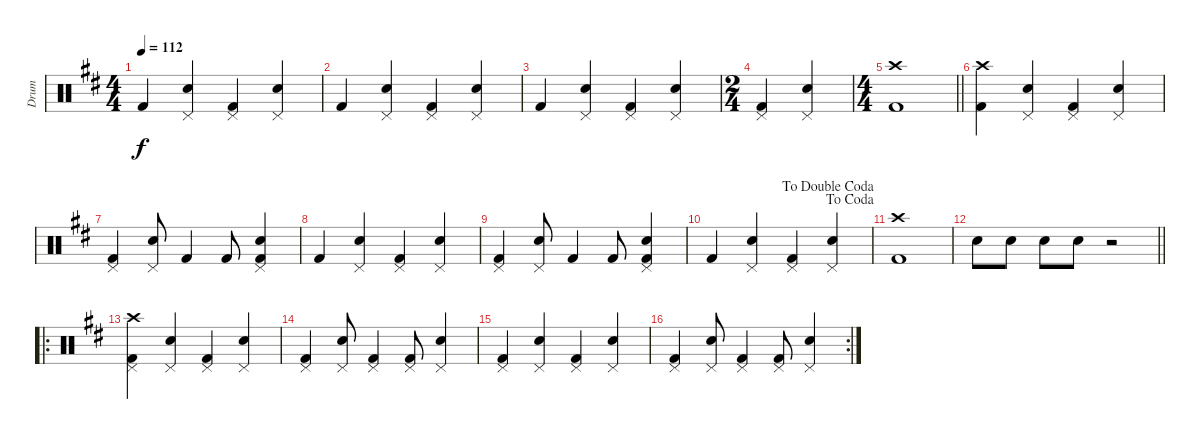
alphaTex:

\track ("Drum" "Drum") {instrument percussion}
\staff {score}
\articulation defaults
\ts (4 4)
\tempo 112
\clef neutral
\ks d "Kick (hit) 2".4{dy f}
("Pedal Hi-Hat (hit)" "Snare (hit) 2").4 ("Pedal Hi-Hat (hit)" "Kick (hit) 2").4 ("Pedal Hi-Hat (hit)" "Snare (hit) 2").4 |
"Kick (hit) 2".4 ("Pedal Hi-Hat (hit)" "Snare (hit) 2").4 ("Pedal Hi-Hat (hit)" "Kick (hit) 2").4 ("Pedal Hi-Hat (hit)" "Snare (hit) 2").4 |
"Kick (hit) 2".4 ("Pedal Hi-Hat (hit)" "Snare (hit) 2").4 ("Pedal Hi-Hat (hit)" "Kick (hit) 2").4 ("Pedal Hi-Hat (hit)" "Snare (hit) 2").4 |
\ts (2 4)
("Pedal Hi-Hat (hit)" "Kick (hit) 2").4 ("Pedal Hi-Hat (hit)" "Snare (hit) 2").4 |
\ts (4 4)
\barLineRight lightlight
("Kick (hit) 2" "Crash high (hit)").1 |
("Kick (hit) 2" "Crash high (hit)").4 ("Pedal Hi-Hat (hit)" "Snare (hit) 2").4 ("Pedal Hi-Hat (hit)" "Kick (hit) 2").4 ("Pedal Hi-Hat (hit)" "Snare (hit) 2").4 |
("Pedal Hi-Hat (hit)" "Kick (hit) 2").4 ("Pedal Hi-Hat (hit)" "Snare (hit) 2").8 "Kick (hit) 2".4 "Kick (hit) 2".8 ("Pedal Hi-Hat (hit)" "Snare (hit) 2" "Kick (hit) 2").4 |
"Kick (hit) 2".4 ("Pedal Hi-Hat (hit)" "Snare (hit) 2").4 ("Pedal Hi-Hat (hit)" "Kick (hit) 2").4 ("Pedal Hi-Hat (hit)" "Snare (hit) 2").4 |
("Pedal Hi-Hat (hit)" "Kick (hit) 2").4 ("Pedal Hi-Hat (hit)" "Snare (hit) 2").8 "Kick (hit) 2".4 "Kick (hit) 2".8 ("Pedal Hi-Hat (hit)" "Snare (hit) 2" "Kick (hit) 2").4 |
\jump dacoda
\jump dadoublecoda "Kick (hit) 2".4
("Pedal Hi-Hat (hit)" "Snare (hit) 2").4 ("Pedal Hi-Hat (hit)" "Kick (hit) 2").4 ("Pedal Hi-Hat (hit)" "Snare (hit) 2").4 |
("Crash high (hit)" "Kick (hit) 2").1 |
\barLineRight lightlight "Electric Snare (hit)".8 "Electric Snare (hit)".8 "Electric Snare (hit)".8 "Electric Snare (hit)".8
r.2 |
\ro
("Pedal Hi-Hat (hit)" "Kick (hit) 2" "Crash high (hit)").4 ("Snare (hit) 2" "Pedal Hi-Hat (hit)").4 ("Pedal Hi-Hat (hit)" "Kick (hit) 2").4 ("Snare (hit) 2" "Pedal Hi-Hat (hit)").4 |
("Pedal Hi-Hat (hit)" "Kick (hit) 2").4 ("Snare (hit) 2" "Pedal Hi-Hat (hit)").8 ("Pedal Hi-Hat (hit)" "Kick (hit) 2").4 ("Pedal Hi-Hat (hit)" "Kick (hit) 2").8 ("Snare (hit) 2" "Pedal Hi-Hat (hit)").4 |
("Pedal Hi-Hat (hit)" "Kick (hit) 2").4 ("Snare (hit) 2" "Pedal Hi-Hat (hit)").4 ("Pedal Hi-Hat (hit)" "Kick (hit) 2").4 ("Snare (hit) 2" "Pedal Hi-Hat (hit)").4 |
\rc 2
("Pedal Hi-Hat (hit)" "Kick (hit) 2").4 ("Snare (hit) 2" "Pedal Hi-Hat (hit)").8 ("Pedal Hi-Hat (hit)" "Kick (hit) 2").4 ("Pedal Hi-Hat (hit)" "Kick (hit) 2").8 ("Snare (hit) 2" "Pedal Hi-Hat (hit)").4
